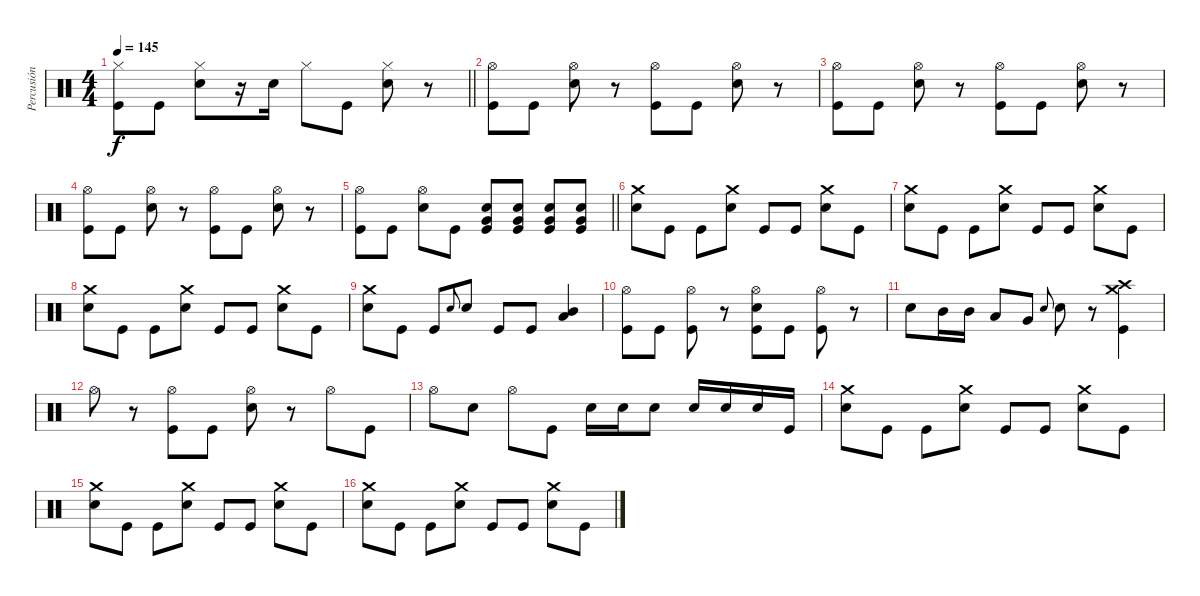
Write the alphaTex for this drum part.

\track ("Percusión" "Percusión") {instrument percussion}
\staff {score}
\articulation defaults
\ts (4 4)
\tempo 145
\clef neutral
\barLineRight lightlight
\ks c
("Hi-Hat (closed)" "Kick (hit)").8{dy f} "Kick (hit)".8 ("Hi-Hat (closed)" "Snare (hit) 2").8 r.16 "Snare (hit) 2".16 "Hi-Hat (closed)".8 "Kick (hit)".8 ("Hi-Hat (closed)" "Snare (hit) 2").8 r.8 |
("Hi-Hat (open)" "Kick (hit)").8 "Kick (hit)".8 ("Hi-Hat (open)" "Snare (hit) 2").8 r.8 ("Hi-Hat (open)" "Kick (hit)").8 "Kick (hit)".8 ("Hi-Hat (open)" "Snare (hit) 2").8 r.8 |
("Hi-Hat (open)" "Kick (hit)").8 "Kick (hit)".8 ("Hi-Hat (open)" "Snare (hit) 2").8 r.8 ("Hi-Hat (open)" "Kick (hit)").8 "Kick (hit)".8 ("Hi-Hat (open)" "Snare (hit) 2").8 r.8 |
("Hi-Hat (open)" "Kick (hit)").8 "Kick (hit)".8 ("Hi-Hat (open)" "Snare (hit) 2").8 r.8 ("Hi-Hat (open)" "Kick (hit)").8 "Kick (hit)".8 ("Hi-Hat (open)" "Snare (hit) 2").8 r.8 |
\barLineRight lightlight
("Hi-Hat (open)" "Kick (hit)").8 "Kick (hit)".8 ("Hi-Hat (open)" "Snare (hit) 2").8 "Kick (hit)".8 ("Very Low Tom (hit)" "Snare (hit) 2" "Kick (hit)").8 ("Very Low Tom (hit)" "Snare (hit) 2" "Kick (hit)").8 ("Very Low Tom (hit)" "Snare (hit) 2" "Kick (hit)").8 ("Very Low Tom (hit)" "Snare (hit) 2" "Kick (hit)").8 |
("Crash medium (hit)" "Snare (hit) 2").8 "Kick (hit)".8 "Kick (hit)".8 ("Crash medium (hit)" "Snare (hit) 2").8 "Kick (hit)".8 "Kick (hit)".8 ("Crash medium (hit)" "Snare (hit) 2").8 "Kick (hit)".8 |
("Crash medium (hit)" "Snare (hit) 2").8 "Kick (hit)".8 "Kick (hit)".8 ("Crash medium (hit)" "Snare (hit) 2").8 "Kick (hit)".8 "Kick (hit)".8 ("Crash medium (hit)" "Snare (hit) 2").8 "Kick (hit)".8 |
("Crash medium (hit)" "Snare (hit) 2").8 "Kick (hit)".8 "Kick (hit)".8 ("Crash medium (hit)" "Snare (hit) 2").8 "Kick (hit)".8 "Kick (hit)".8 ("Crash medium (hit)" "Snare (hit) 2").8 "Kick (hit)".8 |
("Crash medium (hit)" "Snare (hit) 2").8 "Kick (hit)".8 "Kick (hit)".8 "Snare (hit) 2".8{gr onbeat} "Snare (hit) 2".8 "Kick (hit)".8 "Kick (hit)".8 ("Mid Tom (hit)" "Low Tom (hit)").4 |
("Hi-Hat (open)" "Kick (hit)").8 "Kick (hit)".8 ("Hi-Hat (open)" "Kick (hit)").8 r.8 ("Hi-Hat (open)" "Snare (hit) 2" "Kick (hit)").8 "Kick (hit)".8 ("Hi-Hat (open)" "Kick (hit)").8 r.8 |
"Snare (hit) 2".8 "Mid Tom (hit)".16 "Mid Tom (hit)".16 "Low Tom (hit)".8 "Very Low Tom (hit)".8 "Snare (hit) 2".8{gr onbeat} "Snare (hit) 2".8 r.8 ("Crash medium (hit)" "Crash high (hit)" "Kick (hit)").4 |
"Hi-Hat (open)".8 r.8 ("Hi-Hat (open)" "Kick (hit)").8 "Kick (hit)".8 ("Hi-Hat (open)" "Snare (hit) 2").8 r.8 "Hi-Hat (open)".8 "Kick (hit)".8 |
"Hi-Hat (open)".8 "Snare (hit) 2".8 "Hi-Hat (open)".8 "Kick (hit)".8 "Snare (hit) 2".16 "Snare (hit) 2".16 "Snare (hit) 2".8 "Snare (hit) 2".16 "Snare (hit) 2".16 "Snare (hit) 2".16 "Kick (hit)".16 |
("Crash medium (hit)" "Snare (hit) 2").8 "Kick (hit)".8 "Kick (hit)".8 ("Crash medium (hit)" "Snare (hit) 2").8 "Kick (hit)".8 "Kick (hit)".8 ("Crash medium (hit)" "Snare (hit) 2").8 "Kick (hit)".8 |
("Crash medium (hit)" "Snare (hit) 2").8 "Kick (hit)".8 "Kick (hit)".8 ("Crash medium (hit)" "Snare (hit) 2").8 "Kick (hit)".8 "Kick (hit)".8 ("Crash medium (hit)" "Snare (hit) 2").8 "Kick (hit)".8 |
("Crash medium (hit)" "Snare (hit) 2").8 "Kick (hit)".8 "Kick (hit)".8 ("Crash medium (hit)" "Snare (hit) 2").8 "Kick (hit)".8 "Kick (hit)".8 ("Crash medium (hit)" "Snare (hit) 2").8 "Kick (hit)".8
